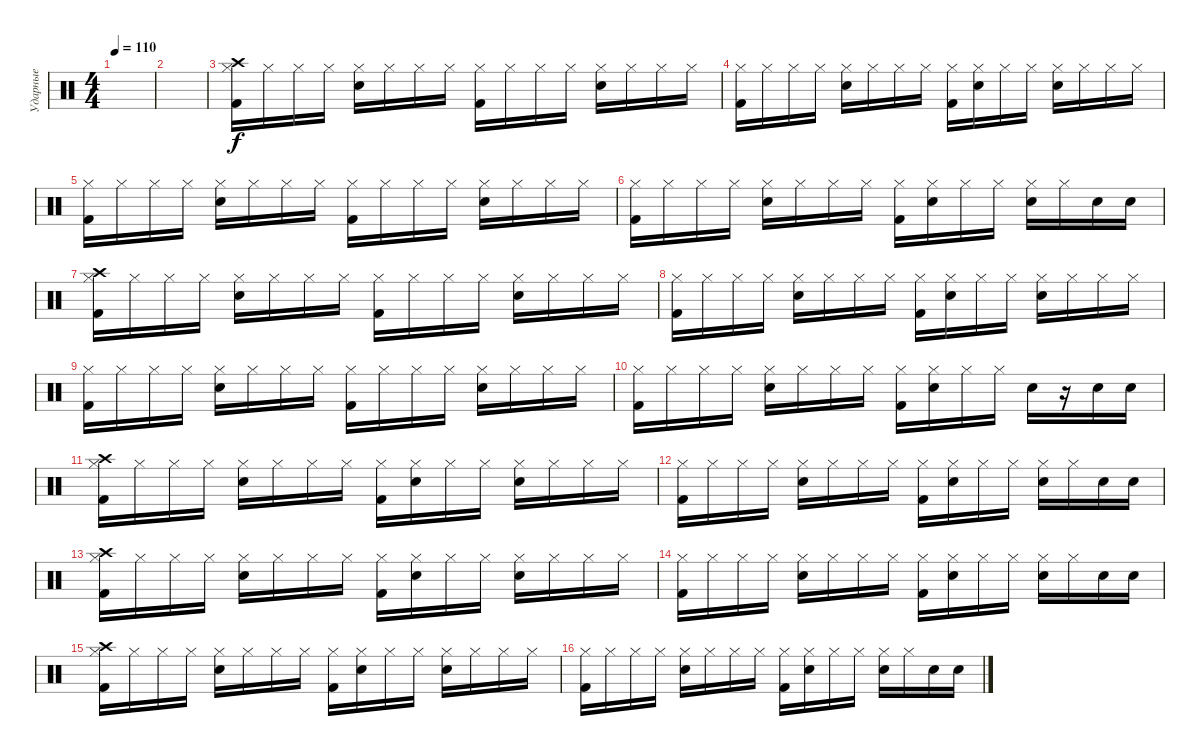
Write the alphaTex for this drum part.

\track ("Ударные" "Ударные") {instrument percussion}
\staff {score}
\articulation defaults
\ts (4 4)
\tempo 110
\clef neutral
\ks c
|
|
("Crash high (hit)" "Hi-Hat (closed)" "Kick (hit) 2").16 "Hi-Hat (closed)".16 "Hi-Hat (closed)".16 "Hi-Hat (closed)".16 ("Hi-Hat (closed)" "Snare (hit) 2").16 "Hi-Hat (closed)".16 "Hi-Hat (closed)".16 "Hi-Hat (closed)".16 ("Hi-Hat (closed)" "Kick (hit) 2").16 "Hi-Hat (closed)".16 "Hi-Hat (closed)".16 "Hi-Hat (closed)".16 ("Hi-Hat (closed)" "Snare (hit) 2").16 "Hi-Hat (closed)".16 "Hi-Hat (closed)".16 "Hi-Hat (closed)".16 |
("Hi-Hat (closed)" "Kick (hit) 2").16 "Hi-Hat (closed)".16 "Hi-Hat (closed)".16 "Hi-Hat (closed)".16 ("Hi-Hat (closed)" "Snare (hit) 2").16 "Hi-Hat (closed)".16 "Hi-Hat (closed)".16 "Hi-Hat (closed)".16 ("Hi-Hat (closed)" "Kick (hit) 2").16 ("Hi-Hat (closed)" "Snare (hit) 2").16 "Hi-Hat (closed)".16 "Hi-Hat (closed)".16 ("Hi-Hat (closed)" "Snare (hit) 2").16 "Hi-Hat (closed)".16 "Hi-Hat (closed)".16 "Hi-Hat (closed)".16 |
("Hi-Hat (closed)" "Kick (hit) 2").16 "Hi-Hat (closed)".16 "Hi-Hat (closed)".16 "Hi-Hat (closed)".16 ("Hi-Hat (closed)" "Snare (hit) 2").16 "Hi-Hat (closed)".16 "Hi-Hat (closed)".16 "Hi-Hat (closed)".16 ("Hi-Hat (closed)" "Kick (hit) 2").16 "Hi-Hat (closed)".16 "Hi-Hat (closed)".16 "Hi-Hat (closed)".16 ("Hi-Hat (closed)" "Snare (hit) 2").16 "Hi-Hat (closed)".16 "Hi-Hat (closed)".16 "Hi-Hat (closed)".16 |
("Hi-Hat (closed)" "Kick (hit) 2").16 "Hi-Hat (closed)".16 "Hi-Hat (closed)".16 "Hi-Hat (closed)".16 ("Hi-Hat (closed)" "Snare (hit) 2").16 "Hi-Hat (closed)".16 "Hi-Hat (closed)".16 "Hi-Hat (closed)".16 ("Hi-Hat (closed)" "Kick (hit) 2").16 ("Hi-Hat (closed)" "Snare (hit) 2").16 "Hi-Hat (closed)".16 "Hi-Hat (closed)".16 ("Hi-Hat (closed)" "Snare (hit) 2").16 "Hi-Hat (closed)".16 "Snare (hit) 2".16 "Snare (hit) 2".16 |
("Crash high (hit)" "Hi-Hat (closed)" "Kick (hit) 2").16 "Hi-Hat (closed)".16 "Hi-Hat (closed)".16 "Hi-Hat (closed)".16 ("Hi-Hat (closed)" "Snare (hit) 2").16 "Hi-Hat (closed)".16 "Hi-Hat (closed)".16 "Hi-Hat (closed)".16 ("Hi-Hat (closed)" "Kick (hit) 2").16 "Hi-Hat (closed)".16 "Hi-Hat (closed)".16 "Hi-Hat (closed)".16 ("Hi-Hat (closed)" "Snare (hit) 2").16 "Hi-Hat (closed)".16 "Hi-Hat (closed)".16 "Hi-Hat (closed)".16 |
("Hi-Hat (closed)" "Kick (hit) 2").16 "Hi-Hat (closed)".16 "Hi-Hat (closed)".16 "Hi-Hat (closed)".16 ("Hi-Hat (closed)" "Snare (hit) 2").16 "Hi-Hat (closed)".16 "Hi-Hat (closed)".16 "Hi-Hat (closed)".16 ("Hi-Hat (closed)" "Kick (hit) 2").16 ("Hi-Hat (closed)" "Snare (hit) 2").16 "Hi-Hat (closed)".16 "Hi-Hat (closed)".16 ("Hi-Hat (closed)" "Snare (hit) 2").16 "Hi-Hat (closed)".16 "Hi-Hat (closed)".16 "Hi-Hat (closed)".16 |
("Hi-Hat (closed)" "Kick (hit) 2").16 "Hi-Hat (closed)".16 "Hi-Hat (closed)".16 "Hi-Hat (closed)".16 ("Hi-Hat (closed)" "Snare (hit) 2").16 "Hi-Hat (closed)".16 "Hi-Hat (closed)".16 "Hi-Hat (closed)".16 ("Hi-Hat (closed)" "Kick (hit) 2").16 "Hi-Hat (closed)".16 "Hi-Hat (closed)".16 "Hi-Hat (closed)".16 ("Hi-Hat (closed)" "Snare (hit) 2").16 "Hi-Hat (closed)".16 "Hi-Hat (closed)".16 "Hi-Hat (closed)".16 |
("Hi-Hat (closed)" "Kick (hit) 2").16 "Hi-Hat (closed)".16 "Hi-Hat (closed)".16 "Hi-Hat (closed)".16 ("Hi-Hat (closed)" "Snare (hit) 2").16 "Hi-Hat (closed)".16 "Hi-Hat (closed)".16 "Hi-Hat (closed)".16 ("Hi-Hat (closed)" "Kick (hit) 2").16 ("Hi-Hat (closed)" "Snare (hit) 2").16 "Hi-Hat (closed)".16 "Hi-Hat (closed)".16 "Snare (hit) 2".16 r.16 "Snare (hit) 2".16 "Snare (hit) 2".16 |
("Crash high (hit)" "Hi-Hat (closed)" "Kick (hit) 2").16 "Hi-Hat (closed)".16 "Hi-Hat (closed)".16 "Hi-Hat (closed)".16 ("Hi-Hat (closed)" "Snare (hit) 2").16 "Hi-Hat (closed)".16 "Hi-Hat (closed)".16 "Hi-Hat (closed)".16 ("Hi-Hat (closed)" "Kick (hit) 2").16 ("Hi-Hat (closed)" "Snare (hit) 2").16 "Hi-Hat (closed)".16 "Hi-Hat (closed)".16 ("Hi-Hat (closed)" "Snare (hit) 2").16 "Hi-Hat (closed)".16 "Hi-Hat (closed)".16 "Hi-Hat (closed)".16 |
("Hi-Hat (closed)" "Kick (hit) 2").16 "Hi-Hat (closed)".16 "Hi-Hat (closed)".16 "Hi-Hat (closed)".16 ("Hi-Hat (closed)" "Snare (hit) 2").16 "Hi-Hat (closed)".16 "Hi-Hat (closed)".16 "Hi-Hat (closed)".16 ("Hi-Hat (closed)" "Kick (hit) 2").16 ("Hi-Hat (closed)" "Snare (hit) 2").16 "Hi-Hat (closed)".16 "Hi-Hat (closed)".16 ("Hi-Hat (closed)" "Snare (hit) 2").16 "Hi-Hat (closed)".16 "Snare (hit) 2".16 "Snare (hit) 2".16 |
("Crash high (hit)" "Hi-Hat (closed)" "Kick (hit) 2").16 "Hi-Hat (closed)".16 "Hi-Hat (closed)".16 "Hi-Hat (closed)".16 ("Hi-Hat (closed)" "Snare (hit) 2").16 "Hi-Hat (closed)".16 "Hi-Hat (closed)".16 "Hi-Hat (closed)".16 ("Hi-Hat (closed)" "Kick (hit) 2").16 ("Hi-Hat (closed)" "Snare (hit) 2").16 "Hi-Hat (closed)".16 "Hi-Hat (closed)".16 ("Hi-Hat (closed)" "Snare (hit) 2").16 "Hi-Hat (closed)".16 "Hi-Hat (closed)".16 "Hi-Hat (closed)".16 |
("Hi-Hat (closed)" "Kick (hit) 2").16 "Hi-Hat (closed)".16 "Hi-Hat (closed)".16 "Hi-Hat (closed)".16 ("Hi-Hat (closed)" "Snare (hit) 2").16 "Hi-Hat (closed)".16 "Hi-Hat (closed)".16 "Hi-Hat (closed)".16 ("Hi-Hat (closed)" "Kick (hit) 2").16 ("Hi-Hat (closed)" "Snare (hit) 2").16 "Hi-Hat (closed)".16 "Hi-Hat (closed)".16 ("Hi-Hat (closed)" "Snare (hit) 2").16 "Hi-Hat (closed)".16 "Snare (hit) 2".16 "Snare (hit) 2".16 |
("Crash high (hit)" "Hi-Hat (closed)" "Kick (hit) 2").16 "Hi-Hat (closed)".16 "Hi-Hat (closed)".16 "Hi-Hat (closed)".16 ("Hi-Hat (closed)" "Snare (hit) 2").16 "Hi-Hat (closed)".16 "Hi-Hat (closed)".16 "Hi-Hat (closed)".16 ("Hi-Hat (closed)" "Kick (hit) 2").16 ("Hi-Hat (closed)" "Snare (hit) 2").16 "Hi-Hat (closed)".16 "Hi-Hat (closed)".16 ("Hi-Hat (closed)" "Snare (hit) 2").16 "Hi-Hat (closed)".16 "Hi-Hat (closed)".16 "Hi-Hat (closed)".16 |
("Hi-Hat (closed)" "Kick (hit) 2").16 "Hi-Hat (closed)".16 "Hi-Hat (closed)".16 "Hi-Hat (closed)".16 ("Hi-Hat (closed)" "Snare (hit) 2").16 "Hi-Hat (closed)".16 "Hi-Hat (closed)".16 "Hi-Hat (closed)".16 ("Hi-Hat (closed)" "Kick (hit) 2").16 ("Hi-Hat (closed)" "Snare (hit) 2").16 "Hi-Hat (closed)".16 "Hi-Hat (closed)".16 ("Hi-Hat (closed)" "Snare (hit) 2").16 "Hi-Hat (closed)".16 "Snare (hit) 2".16 "Snare (hit) 2".16
